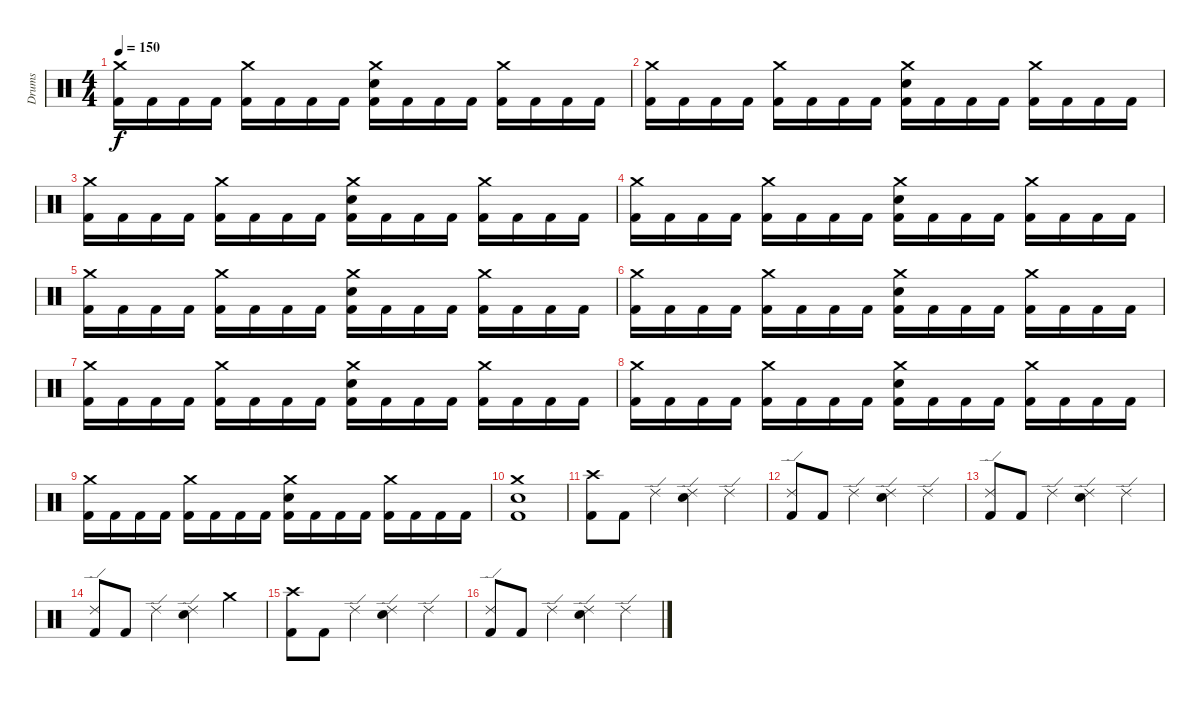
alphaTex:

\track ("Drums" "Drums") {instrument percussion}
\staff {score}
\articulation defaults
\ts (4 4)
\tempo 150
\clef neutral
\ks c
("Crash medium (hit)" "Kick (hit) 2").16{dy f} "Kick (hit) 2".16 "Kick (hit) 2".16 "Kick (hit) 2".16 ("Crash medium (hit)" "Kick (hit) 2").16 "Kick (hit) 2".16 "Kick (hit) 2".16 "Kick (hit) 2".16 ("Crash medium (hit)" "Snare (hit) 2" "Kick (hit) 2").16 "Kick (hit) 2".16 "Kick (hit) 2".16 "Kick (hit) 2".16 ("Crash medium (hit)" "Kick (hit) 2").16 "Kick (hit) 2".16 "Kick (hit) 2".16 "Kick (hit) 2".16 |
("Crash medium (hit)" "Kick (hit) 2").16 "Kick (hit) 2".16 "Kick (hit) 2".16 "Kick (hit) 2".16 ("Crash medium (hit)" "Kick (hit) 2").16 "Kick (hit) 2".16 "Kick (hit) 2".16 "Kick (hit) 2".16 ("Crash medium (hit)" "Snare (hit) 2" "Kick (hit) 2").16 "Kick (hit) 2".16 "Kick (hit) 2".16 "Kick (hit) 2".16 ("Crash medium (hit)" "Kick (hit) 2").16 "Kick (hit) 2".16 "Kick (hit) 2".16 "Kick (hit) 2".16 |
("Crash medium (hit)" "Kick (hit) 2").16 "Kick (hit) 2".16 "Kick (hit) 2".16 "Kick (hit) 2".16 ("Crash medium (hit)" "Kick (hit) 2").16 "Kick (hit) 2".16 "Kick (hit) 2".16 "Kick (hit) 2".16 ("Crash medium (hit)" "Snare (hit) 2" "Kick (hit) 2").16 "Kick (hit) 2".16 "Kick (hit) 2".16 "Kick (hit) 2".16 ("Crash medium (hit)" "Kick (hit) 2").16 "Kick (hit) 2".16 "Kick (hit) 2".16 "Kick (hit) 2".16 |
("Crash medium (hit)" "Kick (hit) 2").16 "Kick (hit) 2".16 "Kick (hit) 2".16 "Kick (hit) 2".16 ("Crash medium (hit)" "Kick (hit) 2").16 "Kick (hit) 2".16 "Kick (hit) 2".16 "Kick (hit) 2".16 ("Crash medium (hit)" "Snare (hit) 2" "Kick (hit) 2").16 "Kick (hit) 2".16 "Kick (hit) 2".16 "Kick (hit) 2".16 ("Crash medium (hit)" "Kick (hit) 2").16 "Kick (hit) 2".16 "Kick (hit) 2".16 "Kick (hit) 2".16 |
("Crash medium (hit)" "Kick (hit) 2").16 "Kick (hit) 2".16 "Kick (hit) 2".16 "Kick (hit) 2".16 ("Crash medium (hit)" "Kick (hit) 2").16 "Kick (hit) 2".16 "Kick (hit) 2".16 "Kick (hit) 2".16 ("Crash medium (hit)" "Snare (hit) 2" "Kick (hit) 2").16 "Kick (hit) 2".16 "Kick (hit) 2".16 "Kick (hit) 2".16 ("Crash medium (hit)" "Kick (hit) 2").16 "Kick (hit) 2".16 "Kick (hit) 2".16 "Kick (hit) 2".16 |
("Crash medium (hit)" "Kick (hit) 2").16 "Kick (hit) 2".16 "Kick (hit) 2".16 "Kick (hit) 2".16 ("Crash medium (hit)" "Kick (hit) 2").16 "Kick (hit) 2".16 "Kick (hit) 2".16 "Kick (hit) 2".16 ("Crash medium (hit)" "Snare (hit) 2" "Kick (hit) 2").16 "Kick (hit) 2".16 "Kick (hit) 2".16 "Kick (hit) 2".16 ("Crash medium (hit)" "Kick (hit) 2").16 "Kick (hit) 2".16 "Kick (hit) 2".16 "Kick (hit) 2".16 |
("Crash medium (hit)" "Kick (hit) 2").16 "Kick (hit) 2".16 "Kick (hit) 2".16 "Kick (hit) 2".16 ("Crash medium (hit)" "Kick (hit) 2").16 "Kick (hit) 2".16 "Kick (hit) 2".16 "Kick (hit) 2".16 ("Crash medium (hit)" "Snare (hit) 2" "Kick (hit) 2").16 "Kick (hit) 2".16 "Kick (hit) 2".16 "Kick (hit) 2".16 ("Crash medium (hit)" "Kick (hit) 2").16 "Kick (hit) 2".16 "Kick (hit) 2".16 "Kick (hit) 2".16 |
("Crash medium (hit)" "Kick (hit) 2").16 "Kick (hit) 2".16 "Kick (hit) 2".16 "Kick (hit) 2".16 ("Crash medium (hit)" "Kick (hit) 2").16 "Kick (hit) 2".16 "Kick (hit) 2".16 "Kick (hit) 2".16 ("Crash medium (hit)" "Snare (hit) 2" "Kick (hit) 2").16 "Kick (hit) 2".16 "Kick (hit) 2".16 "Kick (hit) 2".16 ("Crash medium (hit)" "Kick (hit) 2").16 "Kick (hit) 2".16 "Kick (hit) 2".16 "Kick (hit) 2".16 |
("Crash medium (hit)" "Kick (hit) 2").16 "Kick (hit) 2".16 "Kick (hit) 2".16 "Kick (hit) 2".16 ("Crash medium (hit)" "Kick (hit) 2").16 "Kick (hit) 2".16 "Kick (hit) 2".16 "Kick (hit) 2".16 ("Crash medium (hit)" "Snare (hit) 2" "Kick (hit) 2").16 "Kick (hit) 2".16 "Kick (hit) 2".16 "Kick (hit) 2".16 ("Crash medium (hit)" "Kick (hit) 2").16 "Kick (hit) 2".16 "Kick (hit) 2".16 "Kick (hit) 2".16 |
("Crash medium (hit)" "Snare (hit) 2" "Kick (hit) 2").1 |
("Crash high (hit)" "Kick (hit) 2").8 "Kick (hit) 2".8 "Ride (edge) 2".4 ("Ride (edge) 2" "Snare (hit) 2").4 "Ride (edge) 2".4 |
("Ride (edge) 2" "Kick (hit) 2").8 "Kick (hit) 2".8 "Ride (edge) 2".4 ("Ride (edge) 2" "Snare (hit) 2").4 "Ride (edge) 2".4 |
("Ride (edge) 2" "Kick (hit) 2").8 "Kick (hit) 2".8 "Ride (edge) 2".4 ("Ride (edge) 2" "Snare (hit) 2").4 "Ride (edge) 2".4 |
("Ride (edge) 2" "Kick (hit) 2").8 "Kick (hit) 2".8 "Ride (edge) 2".4 ("Ride (edge) 2" "Snare (hit) 2").4 "Crash medium (hit)".4 |
("Crash high (hit)" "Kick (hit) 2").8 "Kick (hit) 2".8 "Ride (edge) 2".4 ("Ride (edge) 2" "Snare (hit) 2").4 "Ride (edge) 2".4 |
("Ride (edge) 2" "Kick (hit) 2").8 "Kick (hit) 2".8 "Ride (edge) 2".4 ("Ride (edge) 2" "Snare (hit) 2").4 "Ride (edge) 2".4
